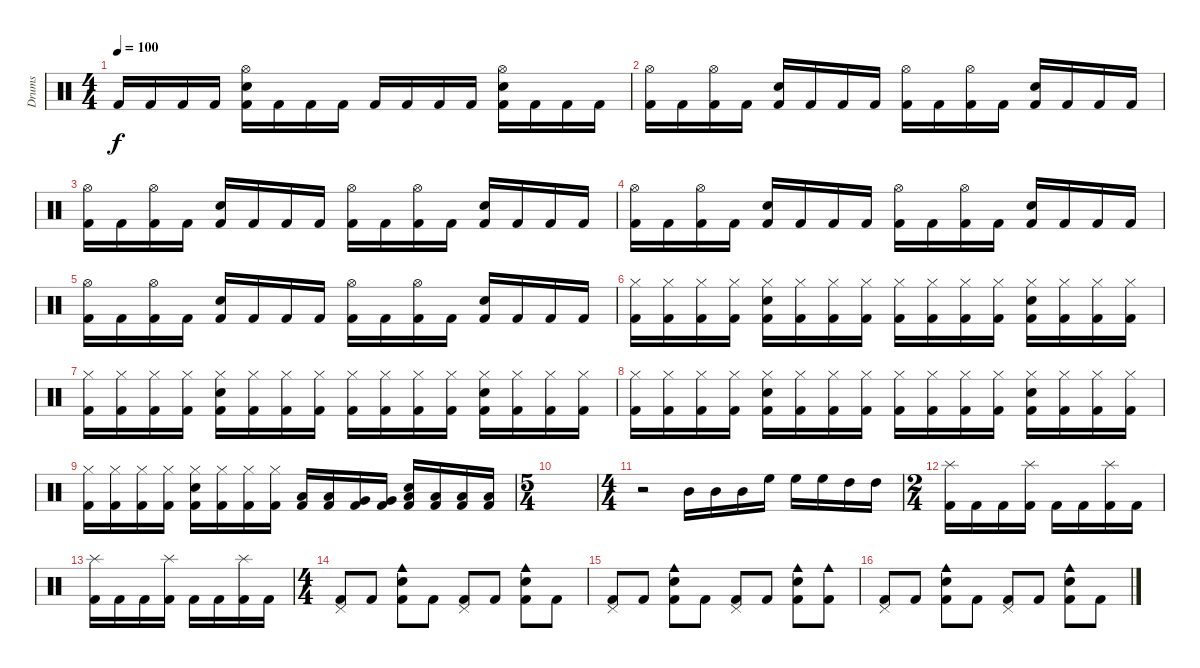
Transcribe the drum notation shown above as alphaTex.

\track ("Drums" "Drums") {instrument percussion}
\staff {score}
\articulation defaults
\ts (4 4)
\tempo 100
\clef neutral
\ks c "Kick (hit) 2".16{dy f} "Kick (hit) 2".16 "Kick (hit) 2".16 "Kick (hit) 2".16
("Kick (hit) 2" "Snare (hit) 2" "Hi-Hat (open)").16 "Kick (hit) 2".16 "Kick (hit) 2".16 "Kick (hit) 2".16 "Kick (hit) 2".16 "Kick (hit) 2".16 "Kick (hit) 2".16 "Kick (hit) 2".16 ("Kick (hit) 2" "Snare (hit) 2" "Hi-Hat (open)").16 "Kick (hit) 2".16 "Kick (hit) 2".16 "Kick (hit) 2".16 |
("Kick (hit) 2" "Hi-Hat (open)").16 "Kick (hit) 2".16 ("Kick (hit) 2" "Hi-Hat (open)").16 "Kick (hit) 2".16 ("Kick (hit) 2" "Snare (hit) 2").16 "Kick (hit) 2".16 "Kick (hit) 2".16 "Kick (hit) 2".16 ("Kick (hit) 2" "Hi-Hat (open)").16 "Kick (hit) 2".16 ("Kick (hit) 2" "Hi-Hat (open)").16 "Kick (hit) 2".16 ("Kick (hit) 2" "Snare (hit) 2").16 "Kick (hit) 2".16 "Kick (hit) 2".16 "Kick (hit) 2".16 |
("Kick (hit) 2" "Hi-Hat (open)").16 "Kick (hit) 2".16 ("Kick (hit) 2" "Hi-Hat (open)").16 "Kick (hit) 2".16 ("Kick (hit) 2" "Snare (hit) 2").16 "Kick (hit) 2".16 "Kick (hit) 2".16 "Kick (hit) 2".16 ("Kick (hit) 2" "Hi-Hat (open)").16 "Kick (hit) 2".16 ("Kick (hit) 2" "Hi-Hat (open)").16 "Kick (hit) 2".16 ("Kick (hit) 2" "Snare (hit) 2").16 "Kick (hit) 2".16 "Kick (hit) 2".16 "Kick (hit) 2".16 |
("Kick (hit) 2" "Hi-Hat (open)").16 "Kick (hit) 2".16 ("Kick (hit) 2" "Hi-Hat (open)").16 "Kick (hit) 2".16 ("Kick (hit) 2" "Snare (hit) 2").16 "Kick (hit) 2".16 "Kick (hit) 2".16 "Kick (hit) 2".16 ("Kick (hit) 2" "Hi-Hat (open)").16 "Kick (hit) 2".16 ("Kick (hit) 2" "Hi-Hat (open)").16 "Kick (hit) 2".16 ("Kick (hit) 2" "Snare (hit) 2").16 "Kick (hit) 2".16 "Kick (hit) 2".16 "Kick (hit) 2".16 |
("Kick (hit) 2" "Hi-Hat (open)").16 "Kick (hit) 2".16 ("Kick (hit) 2" "Hi-Hat (open)").16 "Kick (hit) 2".16 ("Kick (hit) 2" "Snare (hit) 2").16 "Kick (hit) 2".16 "Kick (hit) 2".16 "Kick (hit) 2".16 ("Kick (hit) 2" "Hi-Hat (open)").16 "Kick (hit) 2".16 ("Kick (hit) 2" "Hi-Hat (open)").16 "Kick (hit) 2".16 ("Kick (hit) 2" "Snare (hit) 2").16 "Kick (hit) 2".16 "Kick (hit) 2".16 "Kick (hit) 2".16 |
("Kick (hit) 2" "Hi-Hat (closed)").16 ("Kick (hit) 2" "Hi-Hat (closed)").16 ("Kick (hit) 2" "Hi-Hat (closed)").16 ("Kick (hit) 2" "Hi-Hat (closed)").16 ("Kick (hit) 2" "Snare (hit) 2" "Hi-Hat (closed)").16 ("Kick (hit) 2" "Hi-Hat (closed)").16 ("Kick (hit) 2" "Hi-Hat (closed)").16 ("Kick (hit) 2" "Hi-Hat (closed)").16 ("Kick (hit) 2" "Hi-Hat (closed)").16 ("Kick (hit) 2" "Hi-Hat (closed)").16 ("Kick (hit) 2" "Hi-Hat (closed)").16 ("Kick (hit) 2" "Hi-Hat (closed)").16 ("Kick (hit) 2" "Snare (hit) 2" "Hi-Hat (closed)").16 ("Kick (hit) 2" "Hi-Hat (closed)").16 ("Kick (hit) 2" "Hi-Hat (closed)").16 ("Kick (hit) 2" "Hi-Hat (closed)").16 |
("Kick (hit) 2" "Hi-Hat (closed)").16 ("Kick (hit) 2" "Hi-Hat (closed)").16 ("Kick (hit) 2" "Hi-Hat (closed)").16 ("Kick (hit) 2" "Hi-Hat (closed)").16 ("Kick (hit) 2" "Snare (hit) 2" "Hi-Hat (closed)").16 ("Kick (hit) 2" "Hi-Hat (closed)").16 ("Kick (hit) 2" "Hi-Hat (closed)").16 ("Kick (hit) 2" "Hi-Hat (closed)").16 ("Kick (hit) 2" "Hi-Hat (closed)").16 ("Kick (hit) 2" "Hi-Hat (closed)").16 ("Kick (hit) 2" "Hi-Hat (closed)").16 ("Kick (hit) 2" "Hi-Hat (closed)").16 ("Kick (hit) 2" "Snare (hit) 2" "Hi-Hat (closed)").16 ("Kick (hit) 2" "Hi-Hat (closed)").16 ("Kick (hit) 2" "Hi-Hat (closed)").16 ("Kick (hit) 2" "Hi-Hat (closed)").16 |
("Kick (hit) 2" "Hi-Hat (closed)").16 ("Kick (hit) 2" "Hi-Hat (closed)").16 ("Kick (hit) 2" "Hi-Hat (closed)").16 ("Kick (hit) 2" "Hi-Hat (closed)").16 ("Kick (hit) 2" "Snare (hit) 2" "Hi-Hat (closed)").16 ("Kick (hit) 2" "Hi-Hat (closed)").16 ("Kick (hit) 2" "Hi-Hat (closed)").16 ("Kick (hit) 2" "Hi-Hat (closed)").16 ("Kick (hit) 2" "Hi-Hat (closed)").16 ("Kick (hit) 2" "Hi-Hat (closed)").16 ("Kick (hit) 2" "Hi-Hat (closed)").16 ("Kick (hit) 2" "Hi-Hat (closed)").16 ("Kick (hit) 2" "Snare (hit) 2" "Hi-Hat (closed)").16 ("Kick (hit) 2" "Hi-Hat (closed)").16 ("Kick (hit) 2" "Hi-Hat (closed)").16 ("Kick (hit) 2" "Hi-Hat (closed)").16 |
("Kick (hit) 2" "Hi-Hat (closed)").16 ("Kick (hit) 2" "Hi-Hat (closed)").16 ("Kick (hit) 2" "Hi-Hat (closed)").16 ("Kick (hit) 2" "Hi-Hat (closed)").16 ("Kick (hit) 2" "Snare (hit) 2" "Hi-Hat (closed)").16 ("Kick (hit) 2" "Hi-Hat (closed)").16 ("Kick (hit) 2" "Hi-Hat (closed)").16 ("Kick (hit) 2" "Hi-Hat (closed)").16 ("Kick (hit) 2" "Low Tom (hit)").16 ("Kick (hit) 2" "Low Tom (hit)").16 ("Kick (hit) 2" "Very Low Tom (hit)").16 ("Kick (hit) 2" "Very Low Tom (hit)").16 ("Kick (hit) 2" "Snare (hit) 2" "Low Floor Tom (hit)").16 ("Kick (hit) 2" "Low Floor Tom (hit)").16 ("Kick (hit) 2" "Low Floor Tom (hit)").16 ("Kick (hit) 2" "Low Floor Tom (hit)").16 |
\ts (5 4)
|
\ts (4 4)
r.2 "Mid Tom (hit)".16 "Mid Tom (hit)".16 "Mid Tom (hit)".16 "High Floor Tom (hit)".16 "High Floor Tom (hit)".16 "High Floor Tom (hit)".16 "High Tom (hit)".16 "High Tom (hit)".16 |
\ts (2 4)
("Kick (hit) 2" "Splash (hit)").16 "Kick (hit) 2".16 "Kick (hit) 2".16 ("Kick (hit) 2" "Splash (hit)").16 "Kick (hit) 2".16 "Kick (hit) 2".16 ("Kick (hit) 2" "Splash (hit)").16 "Kick (hit) 2".16 |
("Kick (hit) 2" "Splash (hit)").16 "Kick (hit) 2".16 "Kick (hit) 2".16 ("Kick (hit) 2" "Splash (hit)").16 "Kick (hit) 2".16 "Kick (hit) 2".16 ("Kick (hit) 2" "Splash (hit)").16 "Kick (hit) 2".16 |
\ts (4 4)
("Kick (hit) 2" "Pedal Hi-Hat (hit)").8 "Kick (hit) 2".8 ("Kick (hit) 2" "Snare (hit) 2" "Cowbell medium (hit)").8 "Kick (hit) 2".8 ("Kick (hit) 2" "Pedal Hi-Hat (hit)").8 "Kick (hit) 2".8 ("Kick (hit) 2" "Snare (hit) 2" "Cowbell medium (hit)").8 "Kick (hit) 2".8 |
("Kick (hit) 2" "Pedal Hi-Hat (hit)").8 "Kick (hit) 2".8 ("Kick (hit) 2" "Snare (hit) 2" "Cowbell medium (hit)").8 "Kick (hit) 2".8 ("Kick (hit) 2" "Pedal Hi-Hat (hit)").8 "Kick (hit) 2".8 ("Kick (hit) 2" "Snare (hit) 2" "Cowbell medium (hit)").8 ("Kick (hit) 2" "Cowbell medium (hit)").8 |
("Kick (hit) 2" "Pedal Hi-Hat (hit)").8 "Kick (hit) 2".8 ("Kick (hit) 2" "Snare (hit) 2" "Cowbell medium (hit)").8 "Kick (hit) 2".8 ("Kick (hit) 2" "Pedal Hi-Hat (hit)").8 "Kick (hit) 2".8 ("Kick (hit) 2" "Snare (hit) 2" "Cowbell medium (hit)").8 "Kick (hit) 2".8
